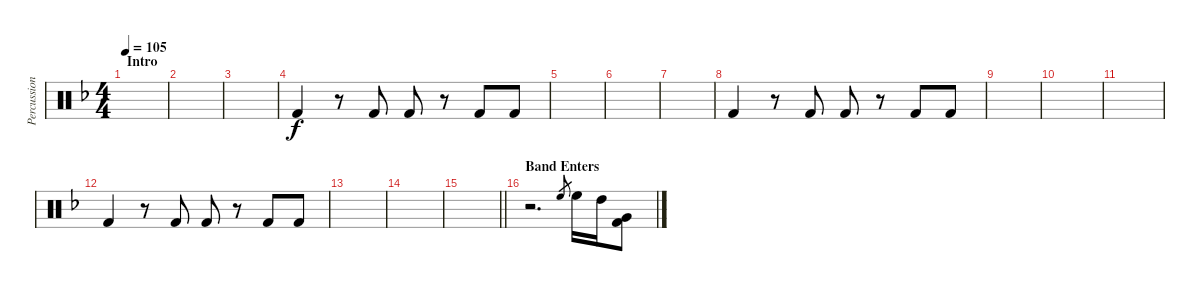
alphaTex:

\track ("Percussion" "Percussion") {instrument percussion}
\staff {score}
\articulation defaults
\ts (4 4)
\section ("" "Intro")
\tempo 105
\clef neutral
\ks f
|
|
|
"Kick (hit) 2".4 r.8 "Kick (hit) 2".8 "Kick (hit) 2".8 r.8 "Kick (hit) 2".8 "Kick (hit) 2".8 |
|
|
|
"Kick (hit) 2".4 r.8 "Kick (hit) 2".8 "Kick (hit) 2".8 r.8 "Kick (hit) 2".8 "Kick (hit) 2".8 |
|
|
|
"Kick (hit) 2".4 r.8 "Kick (hit) 2".8 "Kick (hit) 2".8 r.8 "Kick (hit) 2".8 "Kick (hit) 2".8 |
|
|
\barLineRight lightlight
|
\section ("" "Band Enters")
r.2{d} "High Floor Tom (hit)".8{gr} "High Floor Tom (hit)".16 "High Tom (hit)".16 ("Kick (hit) 2" "Very Low Tom (hit)").8
